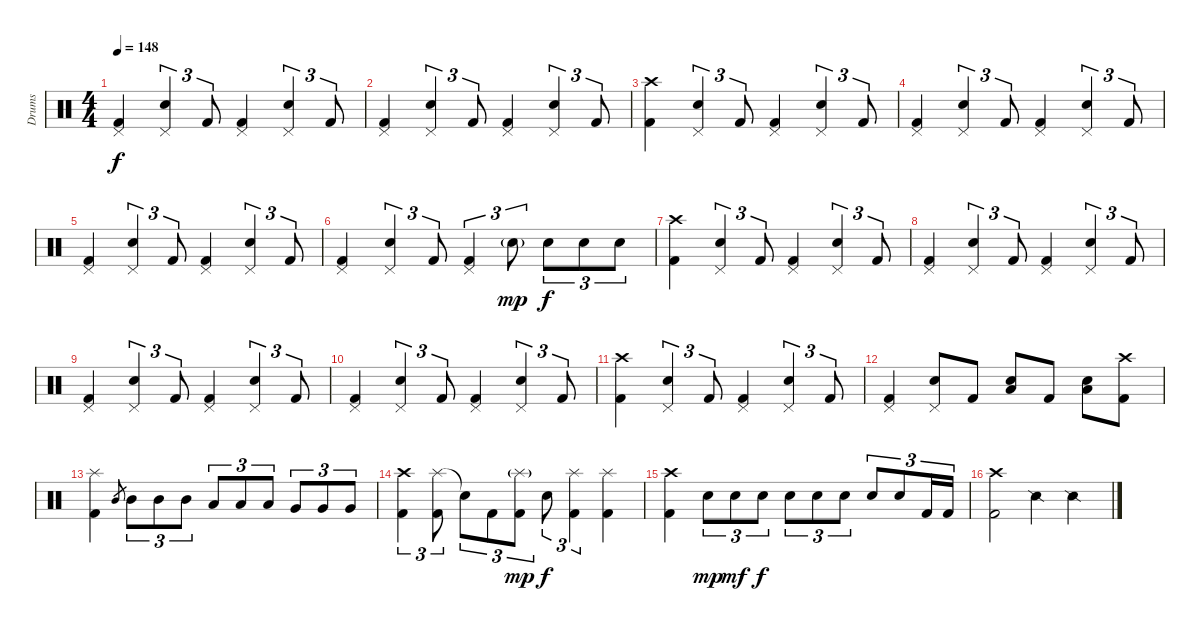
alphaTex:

\track ("Drums" "Drums") {instrument percussion}
\staff {score}
\articulation defaults
\ts (4 4)
\tempo 148
\clef neutral
\ks c
("Pedal Hi-Hat (hit)" "Kick (hit) 2").4{dy f} ("Pedal Hi-Hat (hit)" "Snare (hit) 2").4{tu (3 2)} "Kick (hit) 2".8{tu (3 2)} ("Pedal Hi-Hat (hit)" "Kick (hit) 2").4 ("Pedal Hi-Hat (hit)" "Snare (hit) 2").4{tu (3 2)} "Kick (hit) 2".8{tu (3 2)} |
("Pedal Hi-Hat (hit)" "Kick (hit) 2").4 ("Pedal Hi-Hat (hit)" "Snare (hit) 2").4{tu (3 2)} "Kick (hit) 2".8{tu (3 2)} ("Pedal Hi-Hat (hit)" "Kick (hit) 2").4 ("Pedal Hi-Hat (hit)" "Snare (hit) 2").4{tu (3 2)} "Kick (hit) 2".8{tu (3 2)} |
("Crash high (hit)" "Kick (hit) 2").4 ("Pedal Hi-Hat (hit)" "Snare (hit) 2").4{tu (3 2)} "Kick (hit) 2".8{tu (3 2)} ("Pedal Hi-Hat (hit)" "Kick (hit) 2").4 ("Pedal Hi-Hat (hit)" "Snare (hit) 2").4{tu (3 2)} "Kick (hit) 2".8{tu (3 2)} |
("Pedal Hi-Hat (hit)" "Kick (hit) 2").4 ("Pedal Hi-Hat (hit)" "Snare (hit) 2").4{tu (3 2)} "Kick (hit) 2".8{tu (3 2)} ("Pedal Hi-Hat (hit)" "Kick (hit) 2").4 ("Pedal Hi-Hat (hit)" "Snare (hit) 2").4{tu (3 2)} "Kick (hit) 2".8{tu (3 2)} |
("Pedal Hi-Hat (hit)" "Kick (hit) 2").4 ("Pedal Hi-Hat (hit)" "Snare (hit) 2").4{tu (3 2)} "Kick (hit) 2".8{tu (3 2)} ("Pedal Hi-Hat (hit)" "Kick (hit) 2").4 ("Pedal Hi-Hat (hit)" "Snare (hit) 2").4{tu (3 2)} "Kick (hit) 2".8{tu (3 2)} |
("Pedal Hi-Hat (hit)" "Kick (hit) 2").4 ("Pedal Hi-Hat (hit)" "Snare (hit) 2").4{tu (3 2)} "Kick (hit) 2".8{tu (3 2)} ("Pedal Hi-Hat (hit)" "Kick (hit) 2").4{tu (3 2)} "Snare (hit) 2"{g}.8{tu (3 2) dy mp} "Snare (hit) 2".8{tu (3 2) dy f} "Snare (hit) 2".8{tu (3 2)} "Snare (hit) 2".8{tu (3 2)} |
("Crash high (hit)" "Kick (hit) 2").4 ("Pedal Hi-Hat (hit)" "Snare (hit) 2").4{tu (3 2)} "Kick (hit) 2".8{tu (3 2)} ("Pedal Hi-Hat (hit)" "Kick (hit) 2").4 ("Pedal Hi-Hat (hit)" "Snare (hit) 2").4{tu (3 2)} "Kick (hit) 2".8{tu (3 2)} |
("Pedal Hi-Hat (hit)" "Kick (hit) 2").4 ("Pedal Hi-Hat (hit)" "Snare (hit) 2").4{tu (3 2)} "Kick (hit) 2".8{tu (3 2)} ("Pedal Hi-Hat (hit)" "Kick (hit) 2").4 ("Pedal Hi-Hat (hit)" "Snare (hit) 2").4{tu (3 2)} "Kick (hit) 2".8{tu (3 2)} |
("Pedal Hi-Hat (hit)" "Kick (hit) 2").4 ("Pedal Hi-Hat (hit)" "Snare (hit) 2").4{tu (3 2)} "Kick (hit) 2".8{tu (3 2)} ("Pedal Hi-Hat (hit)" "Kick (hit) 2").4 ("Pedal Hi-Hat (hit)" "Snare (hit) 2").4{tu (3 2)} "Kick (hit) 2".8{tu (3 2)} |
("Pedal Hi-Hat (hit)" "Kick (hit) 2").4 ("Pedal Hi-Hat (hit)" "Snare (hit) 2").4{tu (3 2)} "Kick (hit) 2".8{tu (3 2)} ("Pedal Hi-Hat (hit)" "Kick (hit) 2").4 ("Pedal Hi-Hat (hit)" "Snare (hit) 2").4{tu (3 2)} "Kick (hit) 2".8{tu (3 2)} |
("Crash high (hit)" "Kick (hit) 2").4 ("Pedal Hi-Hat (hit)" "Snare (hit) 2").4{tu (3 2)} "Kick (hit) 2".8{tu (3 2)} ("Pedal Hi-Hat (hit)" "Kick (hit) 2").4 ("Pedal Hi-Hat (hit)" "Snare (hit) 2").4{tu (3 2)} "Kick (hit) 2".8{tu (3 2)} |
("Pedal Hi-Hat (hit)" "Kick (hit) 2").4 ("Pedal Hi-Hat (hit)" "Snare (hit) 2").8 "Kick (hit) 2".8 ("Low Tom (hit)" "Snare (hit) 2").8 "Kick (hit) 2".8 ("Low Tom (hit)" "Snare (hit) 2").8 ("Crash high (hit)" "Kick (hit) 2").8 |
("Splash (hit)" "Kick (hit) 2").4 "Mid Tom (hit)".8{gr} "Mid Tom (hit)".8{tu (3 2)} "Mid Tom (hit)".8{tu (3 2)} "Mid Tom (hit)".8{tu (3 2)} "Low Tom (hit)".8{tu (3 2)} "Low Tom (hit)".8{tu (3 2)} "Low Tom (hit)".8{tu (3 2)} "Very Low Tom (hit)".8{tu (3 2)} "Very Low Tom (hit)".8{tu (3 2)} "Very Low Tom (hit)".8{tu (3 2)} |
("Crash high (hit)" "Kick (hit) 2").4{tu (3 2)} ("Splash (hit)" "Kick (hit) 2").8{tu (3 2)} "Snare (hit)"{t}.8{tu (3 2)} "Kick (hit) 2".8{tu (3 2)} ("Splash (hit)"{g} "Kick (hit) 2").8{tu (3 2) dy mp} "Snare (hit) 2".8{tu (3 2) dy f} ("Splash (hit)" "Kick (hit) 2").4{tu (3 2)} ("Splash (hit)" "Kick (hit) 2").4 |
("Crash high (hit)" "Kick (hit) 2").4 "Snare (hit) 2".8{tu (3 2) dy mp} "Snare (hit) 2".8{tu (3 2) dy mf} "Snare (hit) 2".8{tu (3 2) dy f} "Snare (hit) 2".8{tu (3 2)} "Snare (hit) 2".8{tu (3 2)} "Snare (hit) 2".8{tu (3 2)} "Snare (hit) 2".8{tu (3 2)} "Snare (hit) 2".8{tu (3 2)} "Kick (hit) 2".16{tu (3 2)} "Kick (hit) 2".16{tu (3 2)} |
("Crash high (hit)" "Kick (hit) 2").2 "Snare (side stick) 2".4 "Snare (side stick) 2".4
